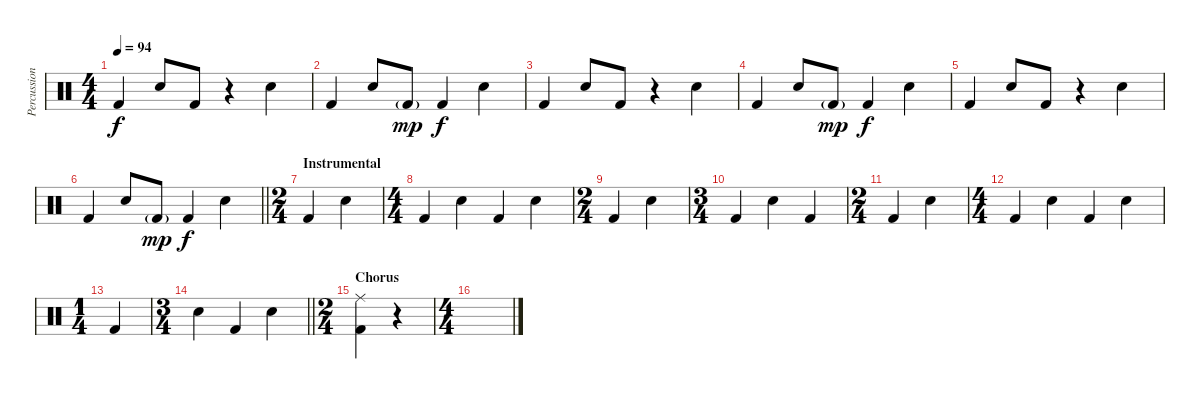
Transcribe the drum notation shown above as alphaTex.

\track ("Percussion" "Percussion") {instrument percussion}
\staff {score}
\articulation defaults
\ts (4 4)
\tempo 94
\clef neutral
\ks c "Kick (hit) 2".4{dy f} "Snare (hit) 2".8 "Kick (hit) 2".8
r.4 "Snare (hit) 2".4 |
"Kick (hit) 2".4 "Snare (hit) 2".8 "Kick (hit) 2"{g}.8{dy mp} "Kick (hit) 2".4{dy f} "Snare (hit) 2".4 |
"Kick (hit) 2".4 "Snare (hit) 2".8 "Kick (hit) 2".8 r.4 "Snare (hit) 2".4 |
"Kick (hit) 2".4 "Snare (hit) 2".8 "Kick (hit) 2"{g}.8{dy mp} "Kick (hit) 2".4{dy f} "Snare (hit) 2".4 |
"Kick (hit) 2".4 "Snare (hit) 2".8 "Kick (hit) 2".8 r.4 "Snare (hit) 2".4 |
\barLineRight lightlight "Kick (hit) 2".4 "Snare (hit) 2".8 "Kick (hit) 2"{g}.8{dy mp} "Kick (hit) 2".4{dy f} "Snare (hit) 2".4
|
\ts (2 4)
\section ("" "Instrumental")
"Kick (hit) 2".4 "Snare (hit) 2".4 |
\ts (4 4)
"Kick (hit) 2".4 "Snare (hit) 2".4 "Kick (hit) 2".4 "Snare (hit) 2".4 |
\ts (2 4)
"Kick (hit) 2".4 "Snare (hit) 2".4 |
\ts (3 4)
"Kick (hit) 2".4 "Snare (hit) 2".4 "Kick (hit) 2".4 |
\ts (2 4)
"Kick (hit) 2".4 "Snare (hit) 2".4 |
\ts (4 4)
"Kick (hit) 2".4 "Snare (hit) 2".4 "Kick (hit) 2".4 "Snare (hit) 2".4 |
\ts (1 4)
"Kick (hit) 2".4 |
\ts (3 4)
\barLineRight lightlight "Snare (hit) 2".4 "Kick (hit) 2".4 "Snare (hit) 2".4
|
\ts (2 4)
\section ("" "Chorus")
("Ride (middle)" "Kick (hit) 2").4 r.4 |
\ts (4 4)
